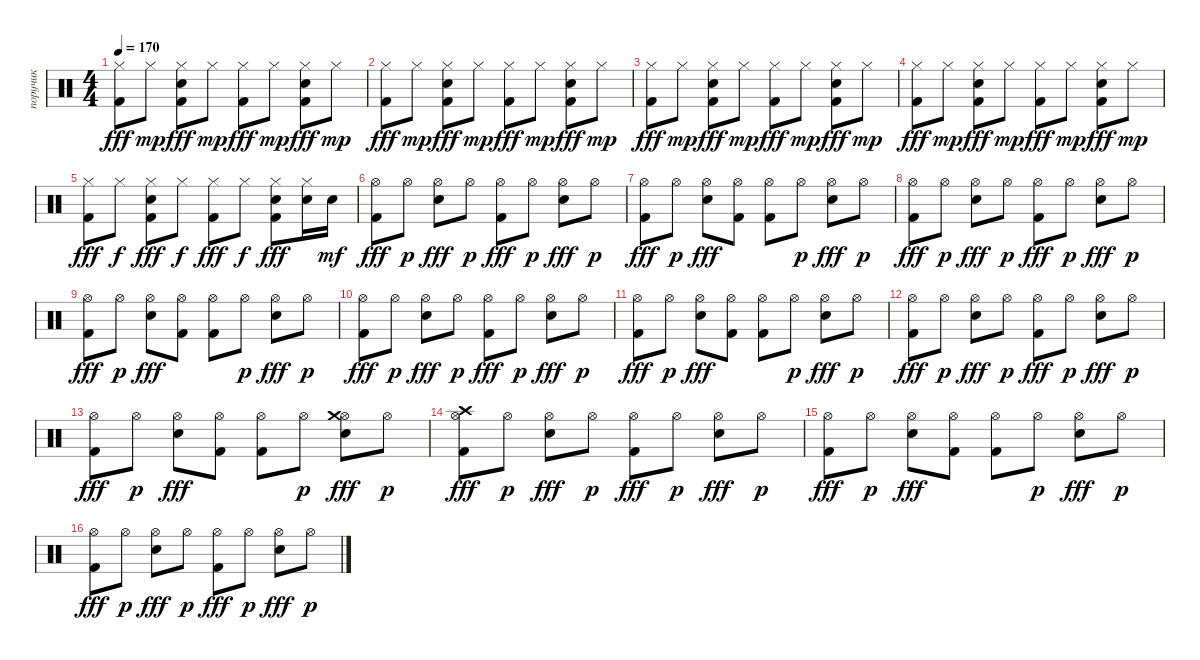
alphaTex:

\track ("поручик" "поручик") {instrument percussion}
\staff {score}
\articulation defaults
\ts (4 4)
\tempo 170
\clef neutral
\ks c
("Hi-Hat (closed)" "Kick (hit) 2").8{dy fff} "Hi-Hat (closed)".8{dy mp} ("Hi-Hat (closed)" "Electric Snare (hit)" "Kick (hit) 2").8{dy fff} "Hi-Hat (closed)".8{dy mp} ("Hi-Hat (closed)" "Kick (hit) 2").8{dy fff} "Hi-Hat (closed)".8{dy mp} ("Hi-Hat (closed)" "Electric Snare (hit)" "Kick (hit) 2").8{dy fff} "Hi-Hat (closed)".8{dy mp} |
("Hi-Hat (closed)" "Kick (hit) 2").8{dy fff} "Hi-Hat (closed)".8{dy mp} ("Hi-Hat (closed)" "Electric Snare (hit)" "Kick (hit) 2").8{dy fff} "Hi-Hat (closed)".8{dy mp} ("Hi-Hat (closed)" "Kick (hit) 2").8{dy fff} "Hi-Hat (closed)".8{dy mp} ("Hi-Hat (closed)" "Electric Snare (hit)" "Kick (hit) 2").8{dy fff} "Hi-Hat (closed)".8{dy mp} |
("Hi-Hat (closed)" "Kick (hit) 2").8{dy fff} "Hi-Hat (closed)".8{dy mp} ("Hi-Hat (closed)" "Electric Snare (hit)" "Kick (hit) 2").8{dy fff} "Hi-Hat (closed)".8{dy mp} ("Hi-Hat (closed)" "Kick (hit) 2").8{dy fff} "Hi-Hat (closed)".8{dy mp} ("Hi-Hat (closed)" "Electric Snare (hit)" "Kick (hit) 2").8{dy fff} "Hi-Hat (closed)".8{dy mp} |
("Hi-Hat (closed)" "Kick (hit) 2").8{dy fff} "Hi-Hat (closed)".8{dy mp} ("Hi-Hat (closed)" "Electric Snare (hit)" "Kick (hit) 2").8{dy fff} "Hi-Hat (closed)".8{dy mp} ("Hi-Hat (closed)" "Kick (hit) 2").8{dy fff} "Hi-Hat (closed)".8{dy mp} ("Hi-Hat (closed)" "Electric Snare (hit)" "Kick (hit) 2").8{dy fff} "Hi-Hat (closed)".8{dy mp} |
("Hi-Hat (closed)" "Kick (hit) 2").8{dy fff} "Hi-Hat (closed)".8{dy f} ("Hi-Hat (closed)" "Electric Snare (hit)" "Kick (hit) 2").8{dy fff} "Hi-Hat (closed)".8{dy f} ("Hi-Hat (closed)" "Kick (hit) 2").8{dy fff} "Hi-Hat (closed)".8{dy f} ("Hi-Hat (closed)" "Electric Snare (hit)" "Kick (hit) 2").8{dy fff} ("Hi-Hat (closed)" "Electric Snare (hit)").16 "Electric Snare (hit)".16{dy mf} |
("Hi-Hat (open)" "Kick (hit) 2").8{dy fff} "Hi-Hat (open)".8{dy p} ("Hi-Hat (open)" "Electric Snare (hit)").8{dy fff} "Hi-Hat (open)".8{dy p} ("Hi-Hat (open)" "Kick (hit) 2").8{dy fff} "Hi-Hat (open)".8{dy p} ("Hi-Hat (open)" "Electric Snare (hit)").8{dy fff} "Hi-Hat (open)".8{dy p} |
("Hi-Hat (open)" "Kick (hit) 2").8{dy fff} "Hi-Hat (open)".8{dy p} ("Hi-Hat (open)" "Electric Snare (hit)").8{dy fff} ("Hi-Hat (open)" "Kick (hit) 2").8 ("Hi-Hat (open)" "Kick (hit) 2").8 "Hi-Hat (open)".8{dy p} ("Hi-Hat (open)" "Electric Snare (hit)").8{dy fff} "Hi-Hat (open)".8{dy p} |
("Hi-Hat (open)" "Kick (hit) 2").8{dy fff} "Hi-Hat (open)".8{dy p} ("Hi-Hat (open)" "Electric Snare (hit)").8{dy fff} "Hi-Hat (open)".8{dy p} ("Hi-Hat (open)" "Kick (hit) 2").8{dy fff} "Hi-Hat (open)".8{dy p} ("Hi-Hat (open)" "Electric Snare (hit)").8{dy fff} "Hi-Hat (open)".8{dy p} |
("Hi-Hat (open)" "Kick (hit) 2").8{dy fff} "Hi-Hat (open)".8{dy p} ("Hi-Hat (open)" "Electric Snare (hit)").8{dy fff} ("Hi-Hat (open)" "Kick (hit) 2").8 ("Hi-Hat (open)" "Kick (hit) 2").8 "Hi-Hat (open)".8{dy p} ("Hi-Hat (open)" "Electric Snare (hit)").8{dy fff} "Hi-Hat (open)".8{dy p} |
("Hi-Hat (open)" "Kick (hit) 2").8{dy fff} "Hi-Hat (open)".8{dy p} ("Hi-Hat (open)" "Electric Snare (hit)").8{dy fff} "Hi-Hat (open)".8{dy p} ("Hi-Hat (open)" "Kick (hit) 2").8{dy fff} "Hi-Hat (open)".8{dy p} ("Hi-Hat (open)" "Electric Snare (hit)").8{dy fff} "Hi-Hat (open)".8{dy p} |
("Hi-Hat (open)" "Kick (hit) 2").8{dy fff} "Hi-Hat (open)".8{dy p} ("Hi-Hat (open)" "Electric Snare (hit)").8{dy fff} ("Hi-Hat (open)" "Kick (hit) 2").8 ("Hi-Hat (open)" "Kick (hit) 2").8 "Hi-Hat (open)".8{dy p} ("Hi-Hat (open)" "Electric Snare (hit)").8{dy fff} "Hi-Hat (open)".8{dy p} |
("Hi-Hat (open)" "Kick (hit) 2").8{dy fff} "Hi-Hat (open)".8{dy p} ("Hi-Hat (open)" "Electric Snare (hit)").8{dy fff} "Hi-Hat (open)".8{dy p} ("Hi-Hat (open)" "Kick (hit) 2").8{dy fff} "Hi-Hat (open)".8{dy p} ("Hi-Hat (open)" "Electric Snare (hit)").8{dy fff} "Hi-Hat (open)".8{dy p} |
("Hi-Hat (open)" "Kick (hit) 2").8{dy fff} "Hi-Hat (open)".8{dy p} ("Hi-Hat (open)" "Electric Snare (hit)").8{dy fff} ("Hi-Hat (open)" "Kick (hit) 2").8 ("Hi-Hat (open)" "Kick (hit) 2").8 "Hi-Hat (open)".8{dy p} ("Hi-Hat (open)" "Crash medium (hit)" "Electric Snare (hit)").8{dy fff} "Hi-Hat (open)".8{dy p} |
("Hi-Hat (open)" "Crash high (hit)" "Kick (hit) 2").8{dy fff} "Hi-Hat (open)".8{dy p} ("Hi-Hat (open)" "Electric Snare (hit)").8{dy fff} "Hi-Hat (open)".8{dy p} ("Hi-Hat (open)" "Kick (hit) 2").8{dy fff} "Hi-Hat (open)".8{dy p} ("Hi-Hat (open)" "Electric Snare (hit)").8{dy fff} "Hi-Hat (open)".8{dy p} |
("Hi-Hat (open)" "Kick (hit) 2").8{dy fff} "Hi-Hat (open)".8{dy p} ("Hi-Hat (open)" "Electric Snare (hit)").8{dy fff} ("Hi-Hat (open)" "Kick (hit) 2").8 ("Hi-Hat (open)" "Kick (hit) 2").8 "Hi-Hat (open)".8{dy p} ("Hi-Hat (open)" "Electric Snare (hit)").8{dy fff} "Hi-Hat (open)".8{dy p} |
("Hi-Hat (open)" "Kick (hit) 2").8{dy fff} "Hi-Hat (open)".8{dy p} ("Hi-Hat (open)" "Electric Snare (hit)").8{dy fff} "Hi-Hat (open)".8{dy p} ("Hi-Hat (open)" "Kick (hit) 2").8{dy fff} "Hi-Hat (open)".8{dy p} ("Hi-Hat (open)" "Electric Snare (hit)").8{dy fff} "Hi-Hat (open)".8{dy p}
